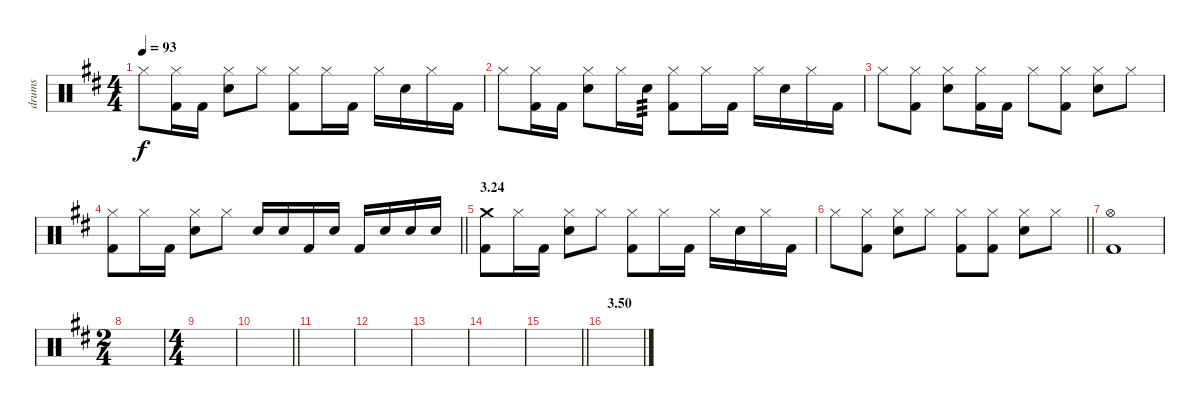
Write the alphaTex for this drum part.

\track ("drums" "drums") {instrument percussion}
\staff {score}
\articulation defaults
\ts (4 4)
\tempo 93
\clef neutral
\ks d "Hi-Hat (closed)".8{dy f}
("Hi-Hat (closed)" "Kick (hit) 2").16 "Kick (hit) 2".16 ("Hi-Hat (closed)" "Electric Snare (hit)").8 "Hi-Hat (closed)".8 ("Hi-Hat (closed)" "Kick (hit) 2").8 "Hi-Hat (closed)".16 "Kick (hit) 2".16 "Hi-Hat (closed)".16 "Electric Snare (hit)".16 "Hi-Hat (closed)".16 "Kick (hit) 2".16 |
"Hi-Hat (closed)".8 ("Hi-Hat (closed)" "Kick (hit) 2").16 "Kick (hit) 2".16 ("Hi-Hat (closed)" "Electric Snare (hit)").8 "Hi-Hat (closed)".16 "Electric Snare (hit)".16{tp 3} ("Hi-Hat (closed)" "Kick (hit) 2").8 "Hi-Hat (closed)".16 "Kick (hit) 2".16 "Hi-Hat (closed)".16 "Electric Snare (hit)".16 "Hi-Hat (closed)".16 "Kick (hit) 2".16 |
"Hi-Hat (closed)".8 ("Hi-Hat (closed)" "Kick (hit) 2").8 ("Hi-Hat (closed)" "Electric Snare (hit)").8 ("Hi-Hat (closed)" "Kick (hit) 2").16 "Kick (hit) 2".16 "Hi-Hat (closed)".8 ("Hi-Hat (closed)" "Kick (hit) 2").8 ("Hi-Hat (closed)" "Electric Snare (hit)").8 "Hi-Hat (closed)".8 |
\barLineRight lightlight
("Hi-Hat (closed)" "Kick (hit) 2").8 "Hi-Hat (closed)".16 "Kick (hit) 2".16 ("Hi-Hat (closed)" "Electric Snare (hit)").8 "Hi-Hat (closed)".8 "Electric Snare (hit)".16 "Electric Snare (hit)".16 "Kick (hit) 2".16 "Electric Snare (hit)".16 "Kick (hit) 2".16 "Electric Snare (hit)".16 "Electric Snare (hit)".16 "Electric Snare (hit)".16 |
\section ("" "3.24")
("Crash medium (hit)" "Kick (hit) 2").8 "Hi-Hat (closed)".16 "Kick (hit) 2".16 ("Hi-Hat (closed)" "Electric Snare (hit)").8 "Hi-Hat (closed)".8 ("Hi-Hat (closed)" "Kick (hit) 2").8 "Hi-Hat (closed)".16 "Kick (hit) 2".16 "Hi-Hat (closed)".16 "Electric Snare (hit)".16 "Hi-Hat (closed)".16 "Kick (hit) 2".16 |
\barLineRight lightlight "Hi-Hat (closed)".8
("Hi-Hat (closed)" "Kick (hit) 2").8 ("Hi-Hat (closed)" "Electric Snare (hit)").8 "Hi-Hat (closed)".8 ("Hi-Hat (closed)" "Kick (hit) 2").8 ("Hi-Hat (closed)" "Kick (hit) 2").8 ("Hi-Hat (closed)" "Electric Snare (hit)").8 "Hi-Hat (closed)".8 |
("Hi-Hat (open)" "Kick (hit) 2").1 |
\ts (2 4)
|
\ts (4 4)
|
\barLineRight lightlight
|
|
|
|
|
\barLineRight lightlight
|
\section ("" "3.50")
